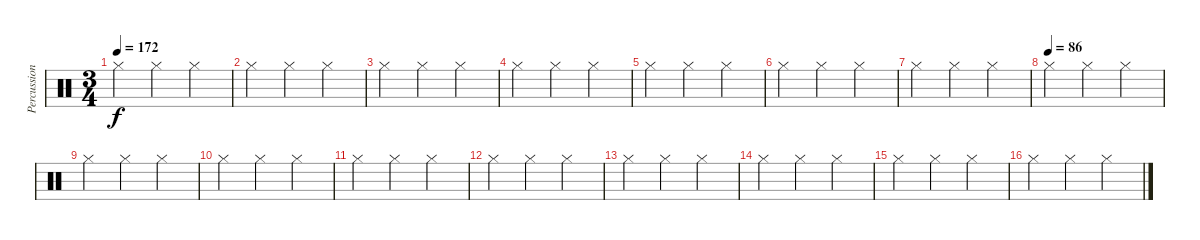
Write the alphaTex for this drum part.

\track ("Percussion" "Percussion") {instrument percussion}
\staff {score}
\articulation defaults
\ts (3 4)
\tempo 172
\clef neutral
\ks c "Hi-Hat (closed)".4{dy f} "Hi-Hat (closed)".4 "Hi-Hat (closed)".4
|
"Hi-Hat (closed)".4 "Hi-Hat (closed)".4 "Hi-Hat (closed)".4 |
"Hi-Hat (closed)".4 "Hi-Hat (closed)".4 "Hi-Hat (closed)".4 |
"Hi-Hat (closed)".4 "Hi-Hat (closed)".4 "Hi-Hat (closed)".4 |
"Hi-Hat (closed)".4 "Hi-Hat (closed)".4 "Hi-Hat (closed)".4 |
"Hi-Hat (closed)".4 "Hi-Hat (closed)".4 "Hi-Hat (closed)".4 |
"Hi-Hat (closed)".4 "Hi-Hat (closed)".4 "Hi-Hat (closed)".4 |
\tempo (86)
"Hi-Hat (closed)".4 "Hi-Hat (closed)".4 "Hi-Hat (closed)".4 |
"Hi-Hat (closed)".4 "Hi-Hat (closed)".4 "Hi-Hat (closed)".4 |
"Hi-Hat (closed)".4 "Hi-Hat (closed)".4 "Hi-Hat (closed)".4 |
"Hi-Hat (closed)".4 "Hi-Hat (closed)".4 "Hi-Hat (closed)".4 |
"Hi-Hat (closed)".4 "Hi-Hat (closed)".4 "Hi-Hat (closed)".4 |
"Hi-Hat (closed)".4 "Hi-Hat (closed)".4 "Hi-Hat (closed)".4 |
"Hi-Hat (closed)".4 "Hi-Hat (closed)".4 "Hi-Hat (closed)".4 |
"Hi-Hat (closed)".4 "Hi-Hat (closed)".4 "Hi-Hat (closed)".4 |
"Hi-Hat (closed)".4 "Hi-Hat (closed)".4 "Hi-Hat (closed)".4
